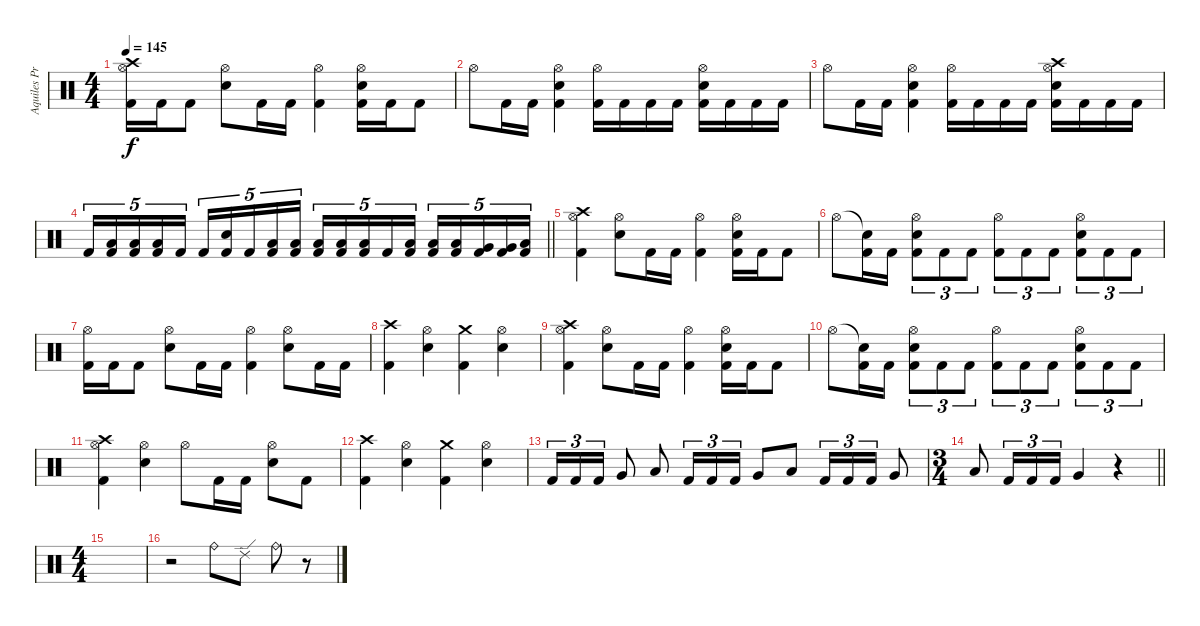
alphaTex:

\track ("Aquiles Priester" "Aquiles Pr") {instrument percussion}
\staff {score}
\articulation defaults
\ts (4 4)
\tempo 145
\clef neutral
\ks c
("Crash high (hit)" "Hi-Hat (open)" "Kick (hit) 2").16{dy f} "Kick (hit) 2".16 "Kick (hit) 2".8 ("Hi-Hat (open)" "Electric Snare (hit)").8 "Kick (hit) 2".16 "Kick (hit) 2".16 ("Hi-Hat (open)" "Kick (hit) 2").4 ("Hi-Hat (open)" "Electric Snare (hit)" "Kick (hit) 2").16 "Kick (hit) 2".16 "Kick (hit) 2".8 |
"Hi-Hat (open)".8 "Kick (hit) 2".16 "Kick (hit) 2".16 ("Hi-Hat (open)" "Electric Snare (hit)" "Kick (hit) 2").4 ("Hi-Hat (open)" "Kick (hit) 2").16 "Kick (hit) 2".16 "Kick (hit) 2".16 "Kick (hit) 2".16 ("Hi-Hat (open)" "Electric Snare (hit)" "Kick (hit) 2").16 "Kick (hit) 2".16 "Kick (hit) 2".16 "Kick (hit) 2".16 |
"Hi-Hat (open)".8 "Kick (hit) 2".16 "Kick (hit) 2".16 ("Hi-Hat (open)" "Electric Snare (hit)" "Kick (hit) 2").4 ("Hi-Hat (open)" "Kick (hit) 2").16 "Kick (hit) 2".16 "Kick (hit) 2".16 "Kick (hit) 2".16 ("Crash high (hit)" "Hi-Hat (open)" "Electric Snare (hit)" "Kick (hit) 2").16 "Kick (hit) 2".16 "Kick (hit) 2".16 "Kick (hit) 2".16 |
\barLineRight lightlight "Kick (hit) 2".16{tu (5 4)}
("Low Tom (hit)" "Kick (hit) 2").16{tu (5 4)} ("Low Tom (hit)" "Kick (hit) 2").16{tu (5 4)} ("Low Tom (hit)" "Kick (hit) 2").16{tu (5 4)} "Kick (hit) 2".16{tu (5 4)} "Kick (hit) 2".16{tu (5 4)} ("Electric Snare (hit)" "Kick (hit) 2").16{tu (5 4)} "Kick (hit) 2".16{tu (5 4)} ("Low Tom (hit)" "Kick (hit) 2").16{tu (5 4)} ("Low Tom (hit)" "Kick (hit) 2").16{tu (5 4)} ("Low Tom (hit)" "Kick (hit) 2").16{tu (5 4)} ("Low Tom (hit)" "Kick (hit) 2").16{tu (5 4)} ("Low Tom (hit)" "Kick (hit) 2").16{tu (5 4)} "Kick (hit) 2".16{tu (5 4)} ("Low Tom (hit)" "Kick (hit) 2").16{tu (5 4)} ("Low Tom (hit)" "Kick (hit) 2").16{tu (5 4)} ("Low Tom (hit)" "Kick (hit) 2").16{tu (5 4)} ("Very Low Tom (hit)" "Kick (hit) 2").16{tu (5 4)} ("Very Low Tom (hit)" "Kick (hit) 2").16{tu (5 4)} ("Low Floor Tom (hit)" "Kick (hit) 2").16{tu (5 4)} |
("Crash high (hit)" "Hi-Hat (open)" "Kick (hit) 2").4 ("Hi-Hat (open)" "Electric Snare (hit)").8 "Kick (hit) 2".16 "Kick (hit) 2".16 ("Hi-Hat (open)" "Kick (hit) 2").4 ("Hi-Hat (open)" "Electric Snare (hit)" "Kick (hit) 2").16 "Kick (hit) 2".16 "Kick (hit) 2".8 |
"Hi-Hat (open)".8 ("Snare (hit)"{t} "Kick (hit) 2").16 "Kick (hit) 2".16 ("Hi-Hat (open)" "Electric Snare (hit)" "Kick (hit) 2").8{tu (3 2)} "Kick (hit) 2".8{tu (3 2)} "Kick (hit) 2".8{tu (3 2)} ("Hi-Hat (open)" "Kick (hit) 2").8{tu (3 2)} "Kick (hit) 2".8{tu (3 2)} "Kick (hit) 2".8{tu (3 2)} ("Hi-Hat (open)" "Electric Snare (hit)" "Kick (hit) 2").8{tu (3 2)} "Kick (hit) 2".8{tu (3 2)} "Kick (hit) 2".8{tu (3 2)} |
("Hi-Hat (open)" "Kick (hit) 2").16 "Kick (hit) 2".16 "Kick (hit) 2".8 ("Hi-Hat (open)" "Electric Snare (hit)").8 "Kick (hit) 2".16 "Kick (hit) 2".16 ("Hi-Hat (open)" "Kick (hit) 2").4 ("Hi-Hat (open)" "Electric Snare (hit)").8 "Kick (hit) 2".16 "Kick (hit) 2".16 |
("Crash high (hit)" "Kick (hit) 2").4 ("Hi-Hat (open)" "Electric Snare (hit)").4 ("Crash medium (hit)" "Kick (hit) 2").4 ("Hi-Hat (open)" "Electric Snare (hit)").4 |
("Crash high (hit)" "Hi-Hat (open)" "Kick (hit) 2").4 ("Hi-Hat (open)" "Electric Snare (hit)").8 "Kick (hit) 2".16 "Kick (hit) 2".16 ("Hi-Hat (open)" "Kick (hit) 2").4 ("Hi-Hat (open)" "Electric Snare (hit)" "Kick (hit) 2").16 "Kick (hit) 2".16 "Kick (hit) 2".8 |
"Hi-Hat (open)".8 ("Snare (hit)"{t} "Kick (hit) 2").16 "Kick (hit) 2".16 ("Hi-Hat (open)" "Electric Snare (hit)" "Kick (hit) 2").8{tu (3 2)} "Kick (hit) 2".8{tu (3 2)} "Kick (hit) 2".8{tu (3 2)} ("Hi-Hat (open)" "Kick (hit) 2").8{tu (3 2)} "Kick (hit) 2".8{tu (3 2)} "Kick (hit) 2".8{tu (3 2)} ("Hi-Hat (open)" "Electric Snare (hit)" "Kick (hit) 2").8{tu (3 2)} "Kick (hit) 2".8{tu (3 2)} "Kick (hit) 2".8{tu (3 2)} |
("Crash high (hit)" "Hi-Hat (open)" "Kick (hit) 2").4 ("Hi-Hat (open)" "Electric Snare (hit)").4 "Hi-Hat (open)".8 "Kick (hit) 2".16 "Kick (hit) 2".16 ("Hi-Hat (open)" "Electric Snare (hit)").8 "Kick (hit) 2".8 |
("Crash high (hit)" "Kick (hit) 2").4 ("Hi-Hat (open)" "Electric Snare (hit)").4 ("Crash medium (hit)" "Kick (hit) 2").4 ("Hi-Hat (open)" "Electric Snare (hit)").4 |
"Kick (hit) 2".16{tu (3 2)} "Kick (hit) 2".16{tu (3 2)} "Kick (hit) 2".16{tu (3 2)} "Very Low Tom (hit)".8 "Low Tom (hit)".8 "Kick (hit) 2".16{tu (3 2)} "Kick (hit) 2".16{tu (3 2)} "Kick (hit) 2".16{tu (3 2)} "Very Low Tom (hit)".8 "Low Tom (hit)".8 "Kick (hit) 2".16{tu (3 2)} "Kick (hit) 2".16{tu (3 2)} "Kick (hit) 2".16{tu (3 2)} "Very Low Tom (hit)".8 |
\ts (3 4)
\barLineRight lightlight "Low Tom (hit)".8 "Kick (hit) 2".16{tu (3 2)} "Kick (hit) 2".16{tu (3 2)} "Kick (hit) 2".16{tu (3 2)} "Very Low Tom (hit)".4
r.4 |
\ts (4 4)
|
r.2 "Ride (bell)".8 "Ride (edge) 2".8 "Ride (bell)".8 r.8
